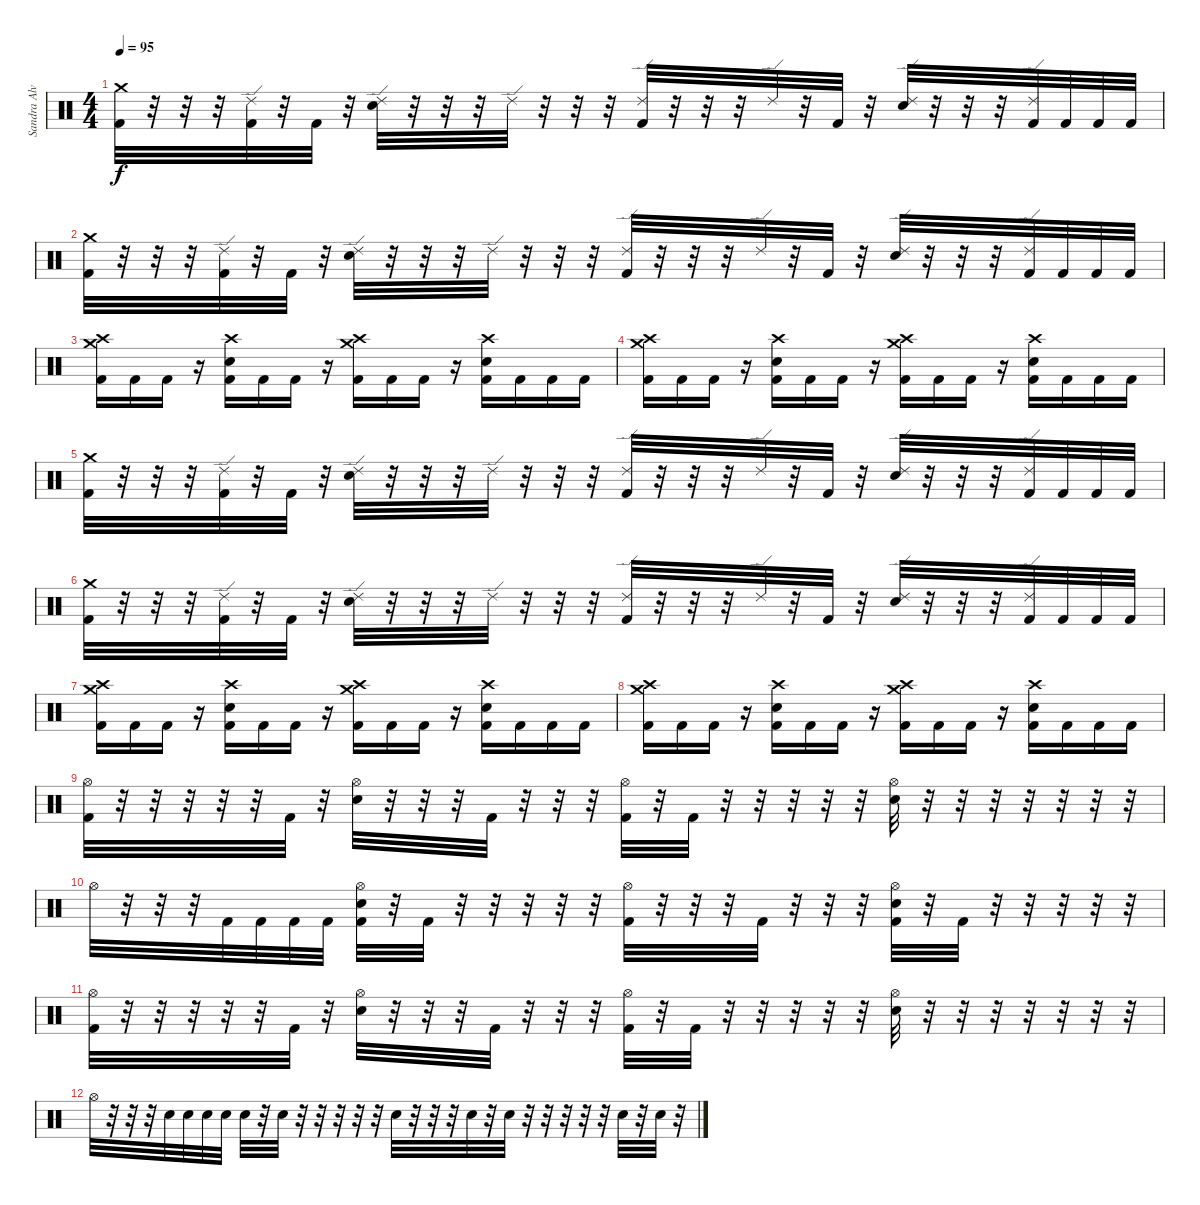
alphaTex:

\track ("Sandra Alvarenga" "Sandra Alv") {instrument percussion}
\staff
\articulation defaults
\ts (4 4)
\tempo 95
\clef neutral
\ks c
("Crash medium (hit)" "Kick (hit) 2").32{dy f} r.32 r.32 r.32 ("Ride (edge) 2" "Kick (hit) 2").32 r.32 "Kick (hit) 2".32 r.32 ("Ride (edge) 2" "Electric Snare (hit)").32 r.32 r.32 r.32 "Ride (edge) 2".32 r.32 r.32 r.32 ("Ride (edge) 2" "Kick (hit) 2").32 r.32 r.32 r.32 "Ride (edge) 2".32 r.32 "Kick (hit) 2".32 r.32 ("Ride (edge) 2" "Electric Snare (hit)").32 r.32 r.32 r.32 ("Ride (edge) 2" "Kick (hit) 2").32 "Kick (hit) 2".32 "Kick (hit) 2".32 "Kick (hit) 2".32 |
("Crash medium (hit)" "Kick (hit) 2").32 r.32 r.32 r.32 ("Ride (edge) 2" "Kick (hit) 2").32 r.32 "Kick (hit) 2".32 r.32 ("Ride (edge) 2" "Electric Snare (hit)").32 r.32 r.32 r.32 "Ride (edge) 2".32 r.32 r.32 r.32 ("Ride (edge) 2" "Kick (hit) 2").32 r.32 r.32 r.32 "Ride (edge) 2".32 r.32 "Kick (hit) 2".32 r.32 ("Ride (edge) 2" "Electric Snare (hit)").32 r.32 r.32 r.32 ("Ride (edge) 2" "Kick (hit) 2").32 "Kick (hit) 2".32 "Kick (hit) 2".32 "Kick (hit) 2".32 |
("Crash medium (hit)" "Crash high (hit)" "Kick (hit) 2").16 "Kick (hit) 2".16 "Kick (hit) 2".16 r.16 ("Crash high (hit)" "Electric Snare (hit)" "Kick (hit) 2").16 "Kick (hit) 2".16 "Kick (hit) 2".16 r.16 ("Crash medium (hit)" "Crash high (hit)" "Kick (hit) 2").16 "Kick (hit) 2".16 "Kick (hit) 2".16 r.16 ("Crash high (hit)" "Electric Snare (hit)" "Kick (hit) 2").16 "Kick (hit) 2".16 "Kick (hit) 2".16 "Kick (hit) 2".16 |
("Crash medium (hit)" "Crash high (hit)" "Kick (hit) 2").16 "Kick (hit) 2".16 "Kick (hit) 2".16 r.16 ("Crash high (hit)" "Electric Snare (hit)" "Kick (hit) 2").16 "Kick (hit) 2".16 "Kick (hit) 2".16 r.16 ("Crash medium (hit)" "Crash high (hit)" "Kick (hit) 2").16 "Kick (hit) 2".16 "Kick (hit) 2".16 r.16 ("Crash high (hit)" "Electric Snare (hit)" "Kick (hit) 2").16 "Kick (hit) 2".16 "Kick (hit) 2".16 "Kick (hit) 2".16 |
("Crash medium (hit)" "Kick (hit) 2").32 r.32 r.32 r.32 ("Ride (edge) 2" "Kick (hit) 2").32 r.32 "Kick (hit) 2".32 r.32 ("Ride (edge) 2" "Electric Snare (hit)").32 r.32 r.32 r.32 "Ride (edge) 2".32 r.32 r.32 r.32 ("Ride (edge) 2" "Kick (hit) 2").32 r.32 r.32 r.32 "Ride (edge) 2".32 r.32 "Kick (hit) 2".32 r.32 ("Ride (edge) 2" "Electric Snare (hit)").32 r.32 r.32 r.32 ("Ride (edge) 2" "Kick (hit) 2").32 "Kick (hit) 2".32 "Kick (hit) 2".32 "Kick (hit) 2".32 |
("Crash medium (hit)" "Kick (hit) 2").32 r.32 r.32 r.32 ("Ride (edge) 2" "Kick (hit) 2").32 r.32 "Kick (hit) 2".32 r.32 ("Ride (edge) 2" "Electric Snare (hit)").32 r.32 r.32 r.32 "Ride (edge) 2".32 r.32 r.32 r.32 ("Ride (edge) 2" "Kick (hit) 2").32 r.32 r.32 r.32 "Ride (edge) 2".32 r.32 "Kick (hit) 2".32 r.32 ("Ride (edge) 2" "Electric Snare (hit)").32 r.32 r.32 r.32 ("Ride (edge) 2" "Kick (hit) 2").32 "Kick (hit) 2".32 "Kick (hit) 2".32 "Kick (hit) 2".32 |
("Crash medium (hit)" "Crash high (hit)" "Kick (hit) 2").16 "Kick (hit) 2".16 "Kick (hit) 2".16 r.16 ("Crash high (hit)" "Electric Snare (hit)" "Kick (hit) 2").16 "Kick (hit) 2".16 "Kick (hit) 2".16 r.16 ("Crash medium (hit)" "Crash high (hit)" "Kick (hit) 2").16 "Kick (hit) 2".16 "Kick (hit) 2".16 r.16 ("Crash high (hit)" "Electric Snare (hit)" "Kick (hit) 2").16 "Kick (hit) 2".16 "Kick (hit) 2".16 "Kick (hit) 2".16 |
("Crash medium (hit)" "Crash high (hit)" "Kick (hit) 2").16 "Kick (hit) 2".16 "Kick (hit) 2".16 r.16 ("Crash high (hit)" "Electric Snare (hit)" "Kick (hit) 2").16 "Kick (hit) 2".16 "Kick (hit) 2".16 r.16 ("Crash medium (hit)" "Crash high (hit)" "Kick (hit) 2").16 "Kick (hit) 2".16 "Kick (hit) 2".16 r.16 ("Crash high (hit)" "Electric Snare (hit)" "Kick (hit) 2").16 "Kick (hit) 2".16 "Kick (hit) 2".16 "Kick (hit) 2".16 |
("Hi-Hat (open)" "Kick (hit) 2").32 r.32 r.32 r.32 r.32 r.32 "Kick (hit) 2".32 r.32 ("Hi-Hat (open)" "Electric Snare (hit)").32 r.32 r.32 r.32 "Kick (hit) 2".32 r.32 r.32 r.32 ("Hi-Hat (open)" "Kick (hit) 2").32 r.32 "Kick (hit) 2".32 r.32 r.32 r.32 r.32 r.32 ("Hi-Hat (open)" "Electric Snare (hit)").32 r.32 r.32 r.32 r.32 r.32 r.32 r.32 |
"Hi-Hat (open)".32 r.32 r.32 r.32 "Kick (hit) 2".32 "Kick (hit) 2".32 "Kick (hit) 2".32 "Kick (hit) 2".32 ("Hi-Hat (open)" "Electric Snare (hit)" "Kick (hit) 2").32 r.32 "Kick (hit) 2".32 r.32 r.32 r.32 r.32 r.32 ("Hi-Hat (open)" "Kick (hit) 2").32 r.32 r.32 r.32 "Kick (hit) 2".32 r.32 r.32 r.32 ("Hi-Hat (open)" "Electric Snare (hit)" "Kick (hit) 2").32 r.32 "Kick (hit) 2".32 r.32 r.32 r.32 r.32 r.32 |
("Hi-Hat (open)" "Kick (hit) 2").32 r.32 r.32 r.32 r.32 r.32 "Kick (hit) 2".32 r.32 ("Hi-Hat (open)" "Electric Snare (hit)").32 r.32 r.32 r.32 "Kick (hit) 2".32 r.32 r.32 r.32 ("Hi-Hat (open)" "Kick (hit) 2").32 r.32 "Kick (hit) 2".32 r.32 r.32 r.32 r.32 r.32 ("Hi-Hat (open)" "Electric Snare (hit)").32 r.32 r.32 r.32 r.32 r.32 r.32 r.32 |
"Hi-Hat (open)".32 r.32 r.32 r.32 "Electric Snare (hit)".32 "Electric Snare (hit)".32 "Electric Snare (hit)".32 "Electric Snare (hit)".32 "Electric Snare (hit)".32 r.32 "Electric Snare (hit)".32 r.32 r.32 r.32 r.32 r.32 "Electric Snare (hit)".32 r.32 r.32 r.32 "Electric Snare (hit)".32 r.32 "Electric Snare (hit)".32 r.32 r.32 r.32 r.32 r.32 "Electric Snare (hit)".32 r.32 "Electric Snare (hit)".32 r.32
